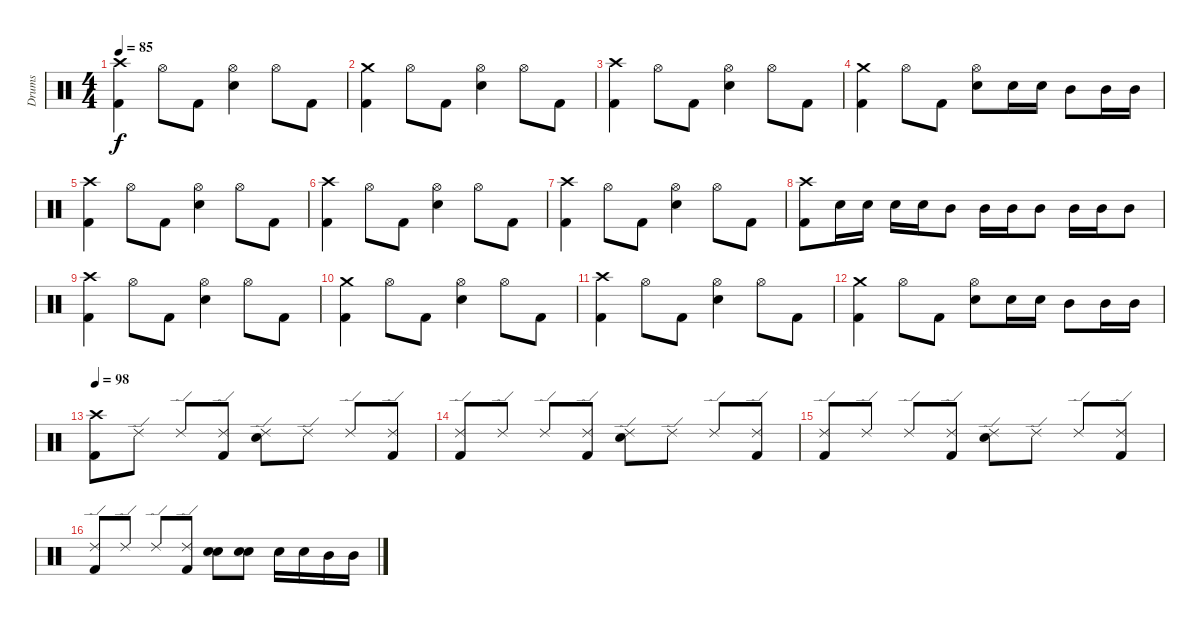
\track ("Drums" "Drums") {instrument percussion}
\staff {score}
\articulation defaults
\ts (4 4)
\tempo 85
\clef neutral
\ks c
("Crash high (hit)" "Kick (hit) 2").4{dy f} "Hi-Hat (open)".8 "Kick (hit) 2".8 ("Hi-Hat (open)" "Electric Snare (hit)").4 "Hi-Hat (open)".8 "Kick (hit) 2".8 |
("Crash medium (hit)" "Kick (hit) 2").4 "Hi-Hat (open)".8 "Kick (hit) 2".8 ("Hi-Hat (open)" "Electric Snare (hit)").4 "Hi-Hat (open)".8 "Kick (hit) 2".8 |
("Crash high (hit)" "Kick (hit) 2").4 "Hi-Hat (open)".8 "Kick (hit) 2".8 ("Hi-Hat (open)" "Electric Snare (hit)").4 "Hi-Hat (open)".8 "Kick (hit) 2".8 |
("Crash medium (hit)" "Kick (hit) 2").4 "Hi-Hat (open)".8 "Kick (hit) 2".8 ("Hi-Hat (open)" "Electric Snare (hit)").8 "Electric Snare (hit)".16 "Electric Snare (hit)".16 "Mid Tom (hit)".8 "Mid Tom (hit)".16 "Mid Tom (hit)".16 |
("Crash high (hit)" "Kick (hit) 2").4 "Hi-Hat (open)".8 "Kick (hit) 2".8 ("Hi-Hat (open)" "Electric Snare (hit)").4 "Hi-Hat (open)".8 "Kick (hit) 2".8 |
("Crash high (hit)" "Kick (hit) 2").4 "Hi-Hat (open)".8 "Kick (hit) 2".8 ("Hi-Hat (open)" "Electric Snare (hit)").4 "Hi-Hat (open)".8 "Kick (hit) 2".8 |
("Crash high (hit)" "Kick (hit) 2").4 "Hi-Hat (open)".8 "Kick (hit) 2".8 ("Hi-Hat (open)" "Electric Snare (hit)").4 "Hi-Hat (open)".8 "Kick (hit) 2".8 |
("Crash high (hit)" "Kick (hit) 2").8 "Electric Snare (hit)".16 "Electric Snare (hit)".16 "Electric Snare (hit)".16 "Electric Snare (hit)".16 "Mid Tom (hit)".8 "Mid Tom (hit)".16 "Mid Tom (hit)".16 "Mid Tom (hit)".8 "Mid Tom (hit)".16 "Mid Tom (hit)".16 "Mid Tom (hit)".8 |
("Crash high (hit)" "Kick (hit) 2").4 "Hi-Hat (open)".8 "Kick (hit) 2".8 ("Hi-Hat (open)" "Electric Snare (hit)").4 "Hi-Hat (open)".8 "Kick (hit) 2".8 |
("Crash medium (hit)" "Kick (hit) 2").4 "Hi-Hat (open)".8 "Kick (hit) 2".8 ("Hi-Hat (open)" "Electric Snare (hit)").4 "Hi-Hat (open)".8 "Kick (hit) 2".8 |
("Crash high (hit)" "Kick (hit) 2").4 "Hi-Hat (open)".8 "Kick (hit) 2".8 ("Hi-Hat (open)" "Electric Snare (hit)").4 "Hi-Hat (open)".8 "Kick (hit) 2".8 |
("Crash medium (hit)" "Kick (hit) 2").4 "Hi-Hat (open)".8 "Kick (hit) 2".8 ("Hi-Hat (open)" "Electric Snare (hit)").8 "Electric Snare (hit)".16 "Electric Snare (hit)".16 "Mid Tom (hit)".8 "Mid Tom (hit)".16 "Mid Tom (hit)".16 |
\tempo 98
("Crash high (hit)" "Kick (hit) 2").8 "Ride (edge) 2".8 "Ride (edge) 2".8 ("Ride (edge) 2" "Kick (hit) 2").8 ("Ride (edge) 2" "Electric Snare (hit)").8 "Ride (edge) 2".8 "Ride (edge) 2".8 ("Ride (edge) 2" "Kick (hit) 2").8 |
("Ride (edge) 2" "Kick (hit) 2").8 "Ride (edge) 2".8 "Ride (edge) 2".8 ("Ride (edge) 2" "Kick (hit) 2").8 ("Ride (edge) 2" "Electric Snare (hit)").8 "Ride (edge) 2".8 "Ride (edge) 2".8 ("Ride (edge) 2" "Kick (hit) 2").8 |
("Ride (edge) 2" "Kick (hit) 2").8 "Ride (edge) 2".8 "Ride (edge) 2".8 ("Ride (edge) 2" "Kick (hit) 2").8 ("Ride (edge) 2" "Electric Snare (hit)").8 "Ride (edge) 2".8 "Ride (edge) 2".8 ("Ride (edge) 2" "Kick (hit) 2").8 |
("Ride (edge) 2" "Kick (hit) 2").8 "Ride (edge) 2".8 "Ride (edge) 2".8 ("Ride (edge) 2" "Kick (hit) 2").8 ("Electric Snare (hit)" "Electric Snare (hit)").8{bu 60} ("Electric Snare (hit)" "Electric Snare (hit)").8{bu 60} "Electric Snare (hit)".16 "Electric Snare (hit)".16 "Mid Tom (hit)".16 "Mid Tom (hit)".16
